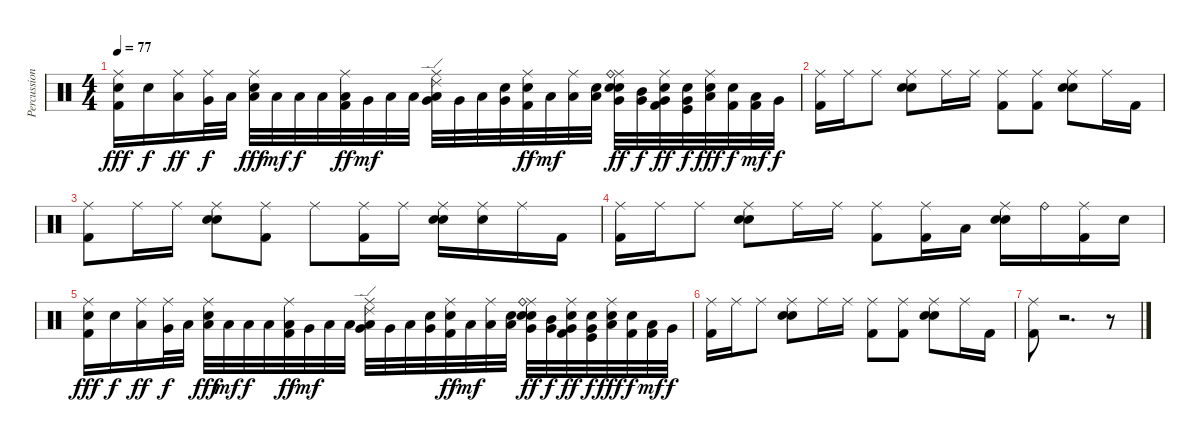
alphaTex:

\track ("Percussion" "Percussion") {instrument percussion}
\staff {score}
\articulation defaults
\ts (4 4)
\tempo 77
\clef neutral
\ks c
("Electric Snare (hit)" "Kick (hit) 2" "Ride (middle)").16{dy fff} "Snare (hit) 2".16{dy f} ("Low Tom (hit)" "Ride (middle)").16{dy ff} ("Very Low Tom (hit)" "Ride (middle)").32{dy f} "Low Floor Tom (hit)".32 ("Metronome (bell)" "Low Tom (hit)" "Ride (middle)").32{dy fff} "Low Floor Tom (hit)".32{dy mf} "Low Floor Tom (hit)".32{dy f} "Low Tom (hit)".32 ("Kick (hit) 2" "Low Tom (hit)" "Ride (middle)").32{dy ff} "Very Low Tom (hit)".32{dy mf} "Low Floor Tom (hit)".32 "Low Tom (hit)".32 ("Very Low Tom (hit)" "Low Tom (hit)" "Ride (middle)" "Ride (edge) 2").32 "Very Low Tom (hit)".32 "Low Floor Tom (hit)".32 ("Snare (hit) 2" "Very Low Tom (hit)").32 ("Kick (hit) 2" "Snare (hit) 2" "Ride (middle)").32{dy ff} "Low Tom (hit)".32{dy mf} ("Low Floor Tom (hit)" "Ride (middle)").32 ("Electric Snare (hit)" "Low Floor Tom (hit)").32 ("Metronome (bell)" "Electric Snare (hit)" "Very Low Tom (hit)" "Ride (middle)" "Ride (bell)").32{dy ff} ("Very Low Tom (hit)" "Mid Tom (hit)").32{dy f} ("Kick (hit) 2" "Very Low Tom (hit)" "Electric Snare (hit)" "Ride (middle)").32{dy ff} ("Kick (hit)" "Snare (hit) 2" "Very Low Tom (hit)").32{dy f} ("Snare (hit) 2" "Low Floor Tom (hit)" "Ride (middle)").32{dy fff} ("Kick (hit) 2" "Electric Snare (hit)").32{dy f} ("Kick (hit) 2" "Low Floor Tom (hit)").32{dy mf} "Very Low Tom (hit)".32{dy f} |
("Kick (hit) 2" "Ride (middle)").16 "Ride (middle)".16 "Ride (middle)".8 ("Metronome (bell)" "Electric Snare (hit)" "Ride (middle)").8 "Ride (middle)".16 "Ride (middle)".16 ("Kick (hit) 2" "Ride (middle)").8 ("Kick (hit) 2" "Ride (middle)").8 ("Metronome (bell)" "Electric Snare (hit)" "Ride (middle)").8 "Ride (middle)".16 "Kick (hit) 2".16 |
("Kick (hit) 2" "Ride (middle)").8 "Ride (middle)".16 "Ride (middle)".16 ("Metronome (bell)" "Electric Snare (hit)" "Ride (middle)").8 ("Kick (hit) 2" "Ride (middle)").8 "Ride (middle)".8 ("Kick (hit) 2" "Ride (middle)").16 "Ride (middle)".16 ("Metronome (bell)" "Electric Snare (hit)" "Ride (middle)").16 ("Electric Snare (hit)" "Ride (middle)").16 "Ride (middle)".16 "Kick (hit) 2".16 |
("Kick (hit) 2" "Ride (middle)").16 "Ride (middle)".16 "Ride (middle)".8 ("Metronome (bell)" "Electric Snare (hit)" "Ride (middle)").8 "Ride (middle)".16 "Ride (middle)".16 ("Kick (hit) 2" "Ride (middle)").8 ("Kick (hit) 2" "Ride (middle)").16 "Low Tom (hit)".16 ("Metronome (bell)" "Electric Snare (hit)" "Ride (middle)").16 "Ride (bell)".16 ("Kick (hit) 2" "Ride (middle)").16 "Electric Snare (hit)".16 |
("Electric Snare (hit)" "Kick (hit) 2" "Ride (middle)").16{dy fff} "Snare (hit) 2".16{dy f} ("Low Tom (hit)" "Ride (middle)").16{dy ff} ("Very Low Tom (hit)" "Ride (middle)").32{dy f} "Low Floor Tom (hit)".32 ("Metronome (bell)" "Low Tom (hit)" "Ride (middle)").32{dy fff} "Low Floor Tom (hit)".32{dy mf} "Low Floor Tom (hit)".32{dy f} "Low Tom (hit)".32 ("Kick (hit) 2" "Low Tom (hit)" "Ride (middle)").32{dy ff} "Very Low Tom (hit)".32{dy mf} "Low Floor Tom (hit)".32 "Low Tom (hit)".32 ("Very Low Tom (hit)" "Low Tom (hit)" "Ride (middle)" "Ride (edge) 2").32 "Very Low Tom (hit)".32 "Low Floor Tom (hit)".32 ("Snare (hit) 2" "Very Low Tom (hit)").32 ("Kick (hit) 2" "Snare (hit) 2" "Ride (middle)").32{dy ff} "Low Tom (hit)".32{dy mf} ("Low Floor Tom (hit)" "Ride (middle)").32 ("Electric Snare (hit)" "Low Floor Tom (hit)").32 ("Metronome (bell)" "Electric Snare (hit)" "Very Low Tom (hit)" "Ride (middle)" "Ride (bell)").32{dy ff} ("Very Low Tom (hit)" "Mid Tom (hit)").32{dy f} ("Kick (hit) 2" "Very Low Tom (hit)" "Electric Snare (hit)" "Ride (middle)").32{dy ff} ("Kick (hit)" "Snare (hit) 2" "Very Low Tom (hit)").32{dy f} ("Snare (hit) 2" "Low Floor Tom (hit)" "Ride (middle)").32{dy fff} ("Kick (hit) 2" "Electric Snare (hit)").32{dy f} ("Kick (hit) 2" "Low Floor Tom (hit)").32{dy mf} "Very Low Tom (hit)".32{dy f} |
("Kick (hit) 2" "Ride (middle)").16 "Ride (middle)".16 "Ride (middle)".8 ("Metronome (bell)" "Electric Snare (hit)" "Ride (middle)").8 "Ride (middle)".16 "Ride (middle)".16 ("Kick (hit) 2" "Ride (middle)").8 ("Kick (hit) 2" "Ride (middle)").8 ("Metronome (bell)" "Electric Snare (hit)" "Ride (middle)").8 "Ride (middle)".16 "Kick (hit) 2".16 |
("Kick (hit) 2" "Ride (middle)").8 r.2{d} r.8
